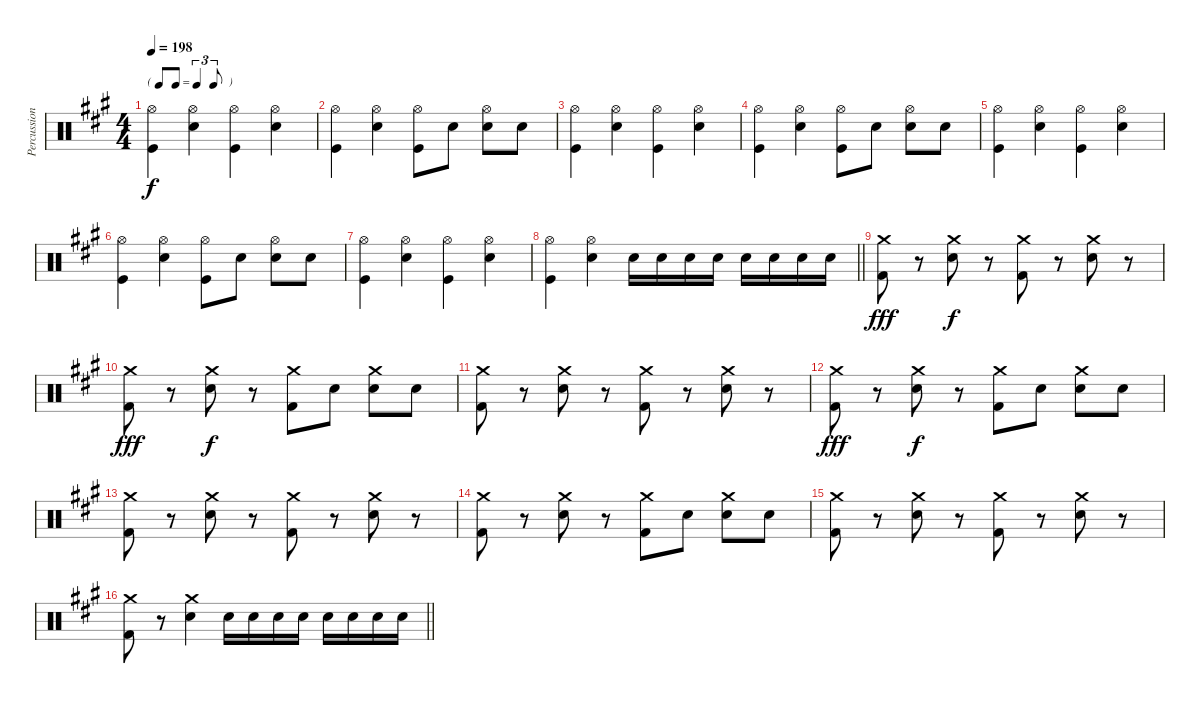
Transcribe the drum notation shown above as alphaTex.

\track ("Percussion" "Percussion") {instrument percussion}
\staff {score}
\articulation defaults
\ts (4 4)
\tf triplet8th
\tempo 198
\clef neutral
\ks a
("Hi-Hat (open)" "Kick (hit)").4{dy f} ("Hi-Hat (open)" "Snare (hit) 2").4 ("Hi-Hat (open)" "Kick (hit)").4 ("Hi-Hat (open)" "Snare (hit) 2").4 |
("Hi-Hat (open)" "Kick (hit)").4 ("Hi-Hat (open)" "Snare (hit) 2").4 ("Hi-Hat (open)" "Kick (hit)").8 "Snare (hit) 2".8 ("Hi-Hat (open)" "Snare (hit) 2").8 "Snare (hit) 2".8 |
("Hi-Hat (open)" "Kick (hit)").4 ("Hi-Hat (open)" "Snare (hit) 2").4 ("Hi-Hat (open)" "Kick (hit)").4 ("Hi-Hat (open)" "Snare (hit) 2").4 |
("Hi-Hat (open)" "Kick (hit)").4 ("Hi-Hat (open)" "Snare (hit) 2").4 ("Hi-Hat (open)" "Kick (hit)").8 "Snare (hit) 2".8 ("Hi-Hat (open)" "Snare (hit) 2").8 "Snare (hit) 2".8 |
("Hi-Hat (open)" "Kick (hit)").4 ("Hi-Hat (open)" "Snare (hit) 2").4 ("Hi-Hat (open)" "Kick (hit)").4 ("Hi-Hat (open)" "Snare (hit) 2").4 |
("Hi-Hat (open)" "Kick (hit)").4 ("Hi-Hat (open)" "Snare (hit) 2").4 ("Hi-Hat (open)" "Kick (hit)").8 "Snare (hit) 2".8 ("Hi-Hat (open)" "Snare (hit) 2").8 "Snare (hit) 2".8 |
("Hi-Hat (open)" "Kick (hit)").4 ("Hi-Hat (open)" "Snare (hit) 2").4 ("Hi-Hat (open)" "Kick (hit)").4 ("Hi-Hat (open)" "Snare (hit) 2").4 |
\barLineRight lightlight
("Hi-Hat (open)" "Kick (hit)").4 ("Hi-Hat (open)" "Snare (hit) 2").4 "Snare (hit) 2".16 "Snare (hit) 2".16 "Snare (hit) 2".16 "Snare (hit) 2".16 "Snare (hit) 2".16 "Snare (hit) 2".16 "Snare (hit) 2".16 "Snare (hit) 2".16 |
("Crash medium (hit)" "Kick (hit) 2").8{dy fff} r.8 ("Crash medium (hit)" "Snare (hit) 2").8{dy f} r.8 ("Crash medium (hit)" "Kick (hit) 2").8 r.8 ("Crash medium (hit)" "Snare (hit) 2").8 r.8 |
("Crash medium (hit)" "Kick (hit) 2").8{dy fff} r.8 ("Crash medium (hit)" "Snare (hit) 2").8{dy f} r.8 ("Crash medium (hit)" "Kick (hit) 2").8 "Snare (hit) 2".8 ("Crash medium (hit)" "Snare (hit) 2").8 "Snare (hit) 2".8 |
("Crash medium (hit)" "Kick (hit) 2").8 r.8 ("Crash medium (hit)" "Snare (hit) 2").8 r.8 ("Crash medium (hit)" "Kick (hit) 2").8 r.8 ("Crash medium (hit)" "Snare (hit) 2").8 r.8 |
("Crash medium (hit)" "Kick (hit) 2").8{dy fff} r.8 ("Crash medium (hit)" "Snare (hit) 2").8{dy f} r.8 ("Crash medium (hit)" "Kick (hit) 2").8 "Snare (hit) 2".8 ("Crash medium (hit)" "Snare (hit) 2").8 "Snare (hit) 2".8 |
("Crash medium (hit)" "Kick (hit) 2").8 r.8 ("Crash medium (hit)" "Snare (hit) 2").8 r.8 ("Crash medium (hit)" "Kick (hit) 2").8 r.8 ("Crash medium (hit)" "Snare (hit) 2").8 r.8 |
("Crash medium (hit)" "Kick (hit) 2").8 r.8 ("Crash medium (hit)" "Snare (hit) 2").8 r.8 ("Crash medium (hit)" "Kick (hit) 2").8 "Snare (hit) 2".8 ("Crash medium (hit)" "Snare (hit) 2").8 "Snare (hit) 2".8 |
("Crash medium (hit)" "Kick (hit) 2").8 r.8 ("Crash medium (hit)" "Snare (hit) 2").8 r.8 ("Crash medium (hit)" "Kick (hit) 2").8 r.8 ("Crash medium (hit)" "Snare (hit) 2").8 r.8 |
\barLineRight lightlight
("Crash medium (hit)" "Kick (hit) 2").8 r.8 ("Crash medium (hit)" "Snare (hit) 2").4 "Snare (hit) 2".16 "Snare (hit) 2".16 "Snare (hit) 2".16 "Snare (hit) 2".16 "Snare (hit) 2".16 "Snare (hit) 2".16 "Snare (hit) 2".16 "Snare (hit) 2".16
